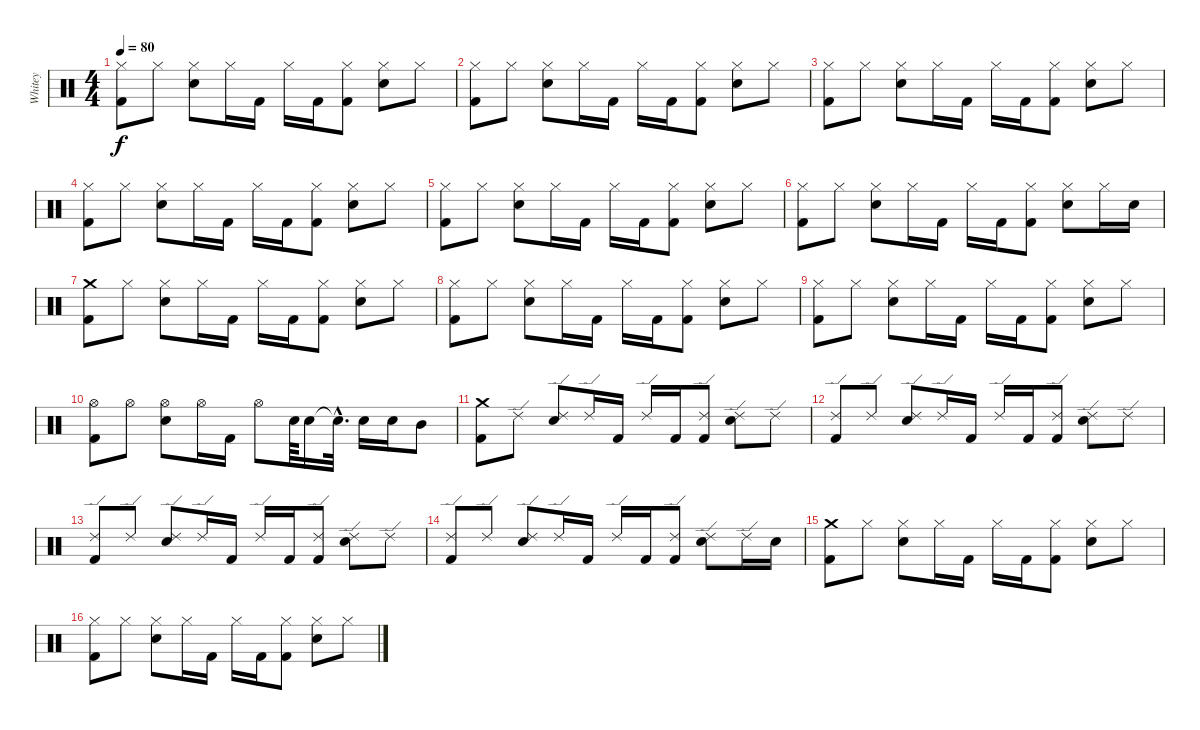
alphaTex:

\track ("Whitey" "Whitey") {instrument percussion}
\staff {score}
\articulation defaults
\ts (4 4)
\tempo 80
\clef neutral
\ks c
("Hi-Hat (closed)" "Kick (hit) 2").8{dy f} "Hi-Hat (closed)".8 ("Hi-Hat (closed)" "Snare (hit) 2").8 "Hi-Hat (closed)".16 "Kick (hit) 2".16 "Hi-Hat (closed)".16 "Kick (hit) 2".16 ("Hi-Hat (closed)" "Kick (hit) 2").8 ("Hi-Hat (closed)" "Snare (hit) 2").8 "Hi-Hat (closed)".8 |
("Hi-Hat (closed)" "Kick (hit) 2").8 "Hi-Hat (closed)".8 ("Hi-Hat (closed)" "Snare (hit) 2").8 "Hi-Hat (closed)".16 "Kick (hit) 2".16 "Hi-Hat (closed)".16 "Kick (hit) 2".16 ("Hi-Hat (closed)" "Kick (hit) 2").8 ("Hi-Hat (closed)" "Snare (hit) 2").8 "Hi-Hat (closed)".8 |
("Hi-Hat (closed)" "Kick (hit) 2").8 "Hi-Hat (closed)".8 ("Hi-Hat (closed)" "Snare (hit) 2").8 "Hi-Hat (closed)".16 "Kick (hit) 2".16 "Hi-Hat (closed)".16 "Kick (hit) 2".16 ("Hi-Hat (closed)" "Kick (hit) 2").8 ("Hi-Hat (closed)" "Snare (hit) 2").8 "Hi-Hat (closed)".8 |
("Hi-Hat (closed)" "Kick (hit) 2").8 "Hi-Hat (closed)".8 ("Hi-Hat (closed)" "Snare (hit) 2").8 "Hi-Hat (closed)".16 "Kick (hit) 2".16 "Hi-Hat (closed)".16 "Kick (hit) 2".16 ("Hi-Hat (closed)" "Kick (hit) 2").8 ("Hi-Hat (closed)" "Snare (hit) 2").8 "Hi-Hat (closed)".8 |
("Hi-Hat (closed)" "Kick (hit) 2").8 "Hi-Hat (closed)".8 ("Hi-Hat (closed)" "Snare (hit) 2").8 "Hi-Hat (closed)".16 "Kick (hit) 2".16 "Hi-Hat (closed)".16 "Kick (hit) 2".16 ("Hi-Hat (closed)" "Kick (hit) 2").8 ("Hi-Hat (closed)" "Snare (hit) 2").8 "Hi-Hat (closed)".8 |
("Hi-Hat (closed)" "Kick (hit) 2").8 "Hi-Hat (closed)".8 ("Hi-Hat (closed)" "Snare (hit) 2").8 "Hi-Hat (closed)".16 "Kick (hit) 2".16 "Hi-Hat (closed)".16 "Kick (hit) 2".16 ("Hi-Hat (closed)" "Kick (hit) 2").8 ("Hi-Hat (closed)" "Snare (hit) 2").8 "Hi-Hat (closed)".16 "Snare (hit) 2".16 |
("Crash medium (hit)" "Kick (hit) 2").8 "Hi-Hat (closed)".8 ("Hi-Hat (closed)" "Snare (hit) 2").8 "Hi-Hat (closed)".16 "Kick (hit) 2".16 "Hi-Hat (closed)".16 "Kick (hit) 2".16 ("Hi-Hat (closed)" "Kick (hit) 2").8 ("Hi-Hat (closed)" "Snare (hit) 2").8 "Hi-Hat (closed)".8 |
("Hi-Hat (closed)" "Kick (hit) 2").8 "Hi-Hat (closed)".8 ("Hi-Hat (closed)" "Snare (hit) 2").8 "Hi-Hat (closed)".16 "Kick (hit) 2".16 "Hi-Hat (closed)".16 "Kick (hit) 2".16 ("Hi-Hat (closed)" "Kick (hit) 2").8 ("Hi-Hat (closed)" "Snare (hit) 2").8 "Hi-Hat (closed)".8 |
("Hi-Hat (closed)" "Kick (hit) 2").8 "Hi-Hat (closed)".8 ("Hi-Hat (closed)" "Snare (hit) 2").8 "Hi-Hat (closed)".16 "Kick (hit) 2".16 "Hi-Hat (closed)".16 "Kick (hit) 2".16 ("Hi-Hat (closed)" "Kick (hit) 2").8 ("Hi-Hat (closed)" "Snare (hit) 2").8 "Hi-Hat (closed)".8 |
("Hi-Hat (open)" "Kick (hit) 2").8 "Hi-Hat (open)".8 ("Hi-Hat (open)" "Snare (hit) 2").8 "Hi-Hat (open)".16 "Kick (hit) 2".16 "Hi-Hat (open)".8 "Snare (hit) 2".64 "Snare (hit) 2".16 "Electric Snare (hit)"{hac t}.32{d} "Snare (hit) 2".16 "Snare (hit) 2".16 "Mid Tom (hit)".8 |
("Crash medium (hit)" "Kick (hit) 2").8 "Ride (edge) 2".8 ("Ride (edge) 2" "Snare (hit) 2").8 "Ride (edge) 2".16 "Kick (hit) 2".16 "Ride (edge) 2".16 "Kick (hit) 2".16 ("Ride (edge) 2" "Kick (hit) 2").8 ("Ride (edge) 2" "Snare (hit) 2").8 "Ride (edge) 2".8 |
("Ride (edge) 2" "Kick (hit) 2").8 "Ride (edge) 2".8 ("Ride (edge) 2" "Snare (hit) 2").8 "Ride (edge) 2".16 "Kick (hit) 2".16 "Ride (edge) 2".16 "Kick (hit) 2".16 ("Ride (edge) 2" "Kick (hit) 2").8 ("Ride (edge) 2" "Snare (hit) 2").8 "Ride (edge) 2".8 |
("Ride (edge) 2" "Kick (hit) 2").8 "Ride (edge) 2".8 ("Ride (edge) 2" "Snare (hit) 2").8 "Ride (edge) 2".16 "Kick (hit) 2".16 "Ride (edge) 2".16 "Kick (hit) 2".16 ("Ride (edge) 2" "Kick (hit) 2").8 ("Ride (edge) 2" "Snare (hit) 2").8 "Ride (edge) 2".8 |
("Ride (edge) 2" "Kick (hit) 2").8 "Ride (edge) 2".8 ("Ride (edge) 2" "Snare (hit) 2").8 "Ride (edge) 2".16 "Kick (hit) 2".16 "Ride (edge) 2".16 "Kick (hit) 2".16 ("Ride (edge) 2" "Kick (hit) 2").8 ("Ride (edge) 2" "Snare (hit) 2").8 "Ride (edge) 2".16 "Snare (hit) 2".16 |
("Crash medium (hit)" "Kick (hit) 2").8 "Hi-Hat (closed)".8 ("Hi-Hat (closed)" "Snare (hit) 2").8 "Hi-Hat (closed)".16 "Kick (hit) 2".16 "Hi-Hat (closed)".16 "Kick (hit) 2".16 ("Hi-Hat (closed)" "Kick (hit) 2").8 ("Hi-Hat (closed)" "Snare (hit) 2").8 "Hi-Hat (closed)".8 |
("Hi-Hat (closed)" "Kick (hit) 2").8 "Hi-Hat (closed)".8 ("Hi-Hat (closed)" "Snare (hit) 2").8 "Hi-Hat (closed)".16 "Kick (hit) 2".16 "Hi-Hat (closed)".16 "Kick (hit) 2".16 ("Hi-Hat (closed)" "Kick (hit) 2").8 ("Hi-Hat (closed)" "Snare (hit) 2").8 "Hi-Hat (closed)".8
